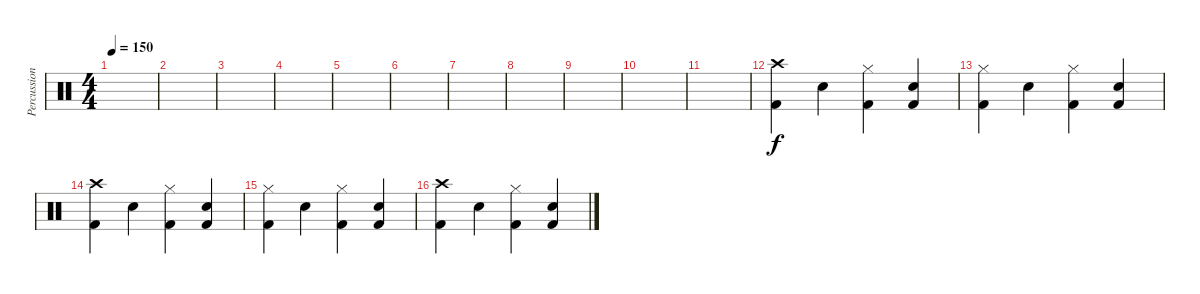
\track ("Percussion" "Percussion") {instrument percussion}
\staff {score}
\articulation defaults
\ts (4 4)
\tempo 150
\clef neutral
\ks c
|
|
|
|
|
|
|
|
|
|
|
("Crash high (hit)" "Kick (hit) 2").4 "Snare (hit) 2".4 ("Hi-Hat (closed)" "Kick (hit) 2").4 ("Snare (hit) 2" "Kick (hit) 2").4 |
("Hi-Hat (closed)" "Kick (hit) 2").4 "Snare (hit) 2".4 ("Hi-Hat (closed)" "Kick (hit) 2").4 ("Snare (hit) 2" "Kick (hit) 2").4 |
("Crash high (hit)" "Kick (hit) 2").4 "Snare (hit) 2".4 ("Hi-Hat (closed)" "Kick (hit) 2").4 ("Snare (hit) 2" "Kick (hit) 2").4 |
("Hi-Hat (closed)" "Kick (hit) 2").4 "Snare (hit) 2".4 ("Hi-Hat (closed)" "Kick (hit) 2").4 ("Snare (hit) 2" "Kick (hit) 2").4 |
("Crash high (hit)" "Kick (hit) 2").4 "Snare (hit) 2".4 ("Hi-Hat (closed)" "Kick (hit) 2").4 ("Snare (hit) 2" "Kick (hit) 2").4
